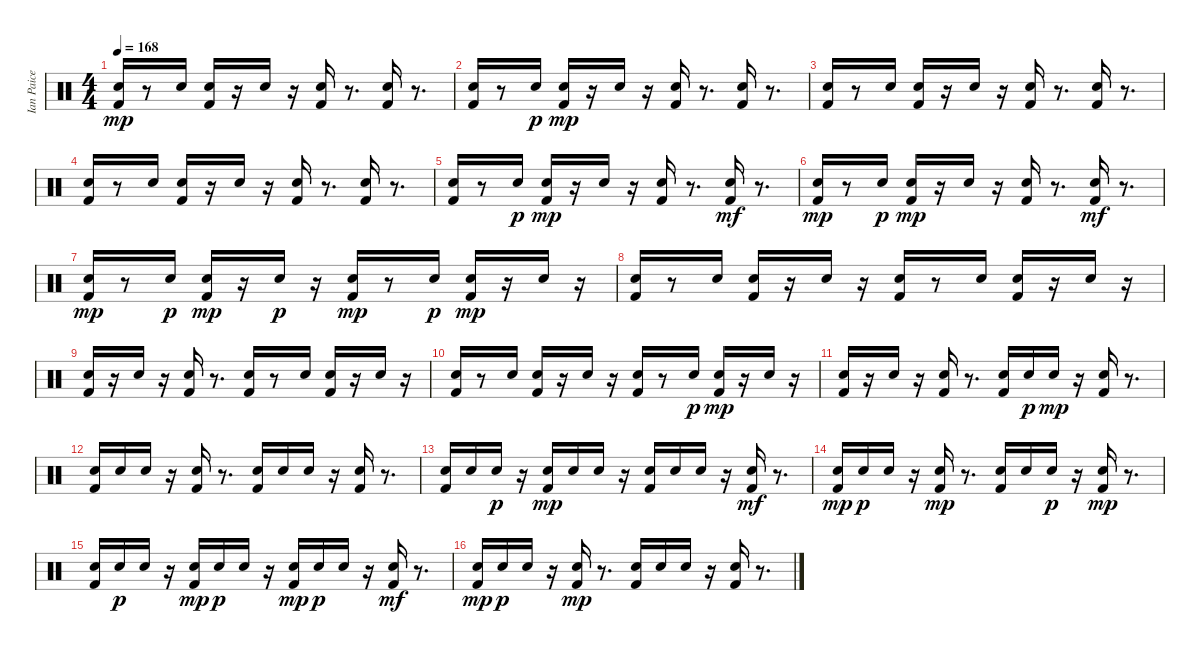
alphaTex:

\track ("Ian Paice" "Ian Paice") {instrument percussion}
\staff {score}
\articulation defaults
\ts (4 4)
\tempo 168
\clef neutral
\ks c
("Kick (hit) 2" "Electric Snare (hit)").16{dy mp} r.8 "Electric Snare (hit)".16 ("Kick (hit) 2" "Electric Snare (hit)").16 r.16 "Electric Snare (hit)".16 r.16 ("Kick (hit) 2" "Electric Snare (hit)").16 r.8{d} ("Kick (hit) 2" "Electric Snare (hit)").16 r.8{d} |
("Kick (hit) 2" "Electric Snare (hit)").16 r.8 "Electric Snare (hit)".16{dy p} ("Kick (hit) 2" "Electric Snare (hit)").16{dy mp} r.16 "Electric Snare (hit)".16 r.16 ("Kick (hit) 2" "Electric Snare (hit)").16 r.8{d} ("Kick (hit) 2" "Electric Snare (hit)").16 r.8{d} |
("Kick (hit) 2" "Electric Snare (hit)").16 r.8 "Electric Snare (hit)".16 ("Kick (hit) 2" "Electric Snare (hit)").16 r.16 "Electric Snare (hit)".16 r.16 ("Kick (hit) 2" "Electric Snare (hit)").16 r.8{d} ("Kick (hit) 2" "Electric Snare (hit)").16 r.8{d} |
("Kick (hit) 2" "Electric Snare (hit)").16 r.8 "Electric Snare (hit)".16 ("Kick (hit) 2" "Electric Snare (hit)").16 r.16 "Electric Snare (hit)".16 r.16 ("Kick (hit) 2" "Electric Snare (hit)").16 r.8{d} ("Kick (hit) 2" "Electric Snare (hit)").16 r.8{d} |
("Kick (hit) 2" "Electric Snare (hit)").16 r.8 "Electric Snare (hit)".16{dy p} ("Kick (hit) 2" "Electric Snare (hit)").16{dy mp} r.16 "Electric Snare (hit)".16 r.16 ("Kick (hit) 2" "Electric Snare (hit)").16 r.8{d} ("Kick (hit) 2" "Electric Snare (hit)").16{dy mf} r.8{d} |
("Kick (hit) 2" "Electric Snare (hit)").16{dy mp} r.8 "Electric Snare (hit)".16{dy p} ("Kick (hit) 2" "Electric Snare (hit)").16{dy mp} r.16 "Electric Snare (hit)".16 r.16 ("Kick (hit) 2" "Electric Snare (hit)").16 r.8{d} ("Kick (hit) 2" "Electric Snare (hit)").16{dy mf} r.8{d} |
("Kick (hit) 2" "Electric Snare (hit)").16{dy mp} r.8 "Electric Snare (hit)".16{dy p} ("Kick (hit) 2" "Electric Snare (hit)").16{dy mp} r.16 "Electric Snare (hit)".16{dy p} r.16 ("Kick (hit) 2" "Electric Snare (hit)").16{dy mp} r.8 "Electric Snare (hit)".16{dy p} ("Kick (hit) 2" "Electric Snare (hit)").16{dy mp} r.16 "Electric Snare (hit)".16 r.16 |
("Kick (hit) 2" "Electric Snare (hit)").16 r.8 "Electric Snare (hit)".16 ("Kick (hit) 2" "Electric Snare (hit)").16 r.16 "Electric Snare (hit)".16 r.16 ("Kick (hit) 2" "Electric Snare (hit)").16 r.8 "Electric Snare (hit)".16 ("Kick (hit) 2" "Electric Snare (hit)").16 r.16 "Electric Snare (hit)".16 r.16 |
("Kick (hit) 2" "Electric Snare (hit)").16 r.16 "Electric Snare (hit)".16 r.16 ("Kick (hit) 2" "Electric Snare (hit)").16 r.8{d} ("Kick (hit) 2" "Electric Snare (hit)").16 r.8 "Electric Snare (hit)".16 ("Kick (hit) 2" "Electric Snare (hit)").16 r.16 "Electric Snare (hit)".16 r.16 |
("Kick (hit) 2" "Electric Snare (hit)").16 r.8 "Electric Snare (hit)".16 ("Kick (hit) 2" "Electric Snare (hit)").16 r.16 "Electric Snare (hit)".16 r.16 ("Kick (hit) 2" "Electric Snare (hit)").16 r.8 "Electric Snare (hit)".16{dy p} ("Kick (hit) 2" "Electric Snare (hit)").16{dy mp} r.16 "Electric Snare (hit)".16 r.16 |
("Kick (hit) 2" "Electric Snare (hit)").16 r.16 "Electric Snare (hit)".16 r.16 ("Kick (hit) 2" "Electric Snare (hit)").16 r.8{d} ("Kick (hit) 2" "Electric Snare (hit)").16 "Electric Snare (hit)".16{dy p} "Electric Snare (hit)".16{dy mp} r.16 ("Kick (hit) 2" "Electric Snare (hit)").16 r.8{d} |
("Kick (hit) 2" "Electric Snare (hit)").16 "Electric Snare (hit)".16 "Electric Snare (hit)".16 r.16 ("Kick (hit) 2" "Electric Snare (hit)").16 r.8{d} ("Kick (hit) 2" "Electric Snare (hit)").16 "Electric Snare (hit)".16 "Electric Snare (hit)".16 r.16 ("Kick (hit) 2" "Electric Snare (hit)").16 r.8{d} |
("Kick (hit) 2" "Electric Snare (hit)").16 "Electric Snare (hit)".16 "Electric Snare (hit)".16{dy p} r.16 ("Kick (hit) 2" "Electric Snare (hit)").16{dy mp} "Electric Snare (hit)".16 "Electric Snare (hit)".16 r.16 ("Kick (hit) 2" "Electric Snare (hit)").16 "Electric Snare (hit)".16 "Electric Snare (hit)".16 r.16 ("Kick (hit) 2" "Electric Snare (hit)").16{dy mf} r.8{d} |
("Kick (hit) 2" "Electric Snare (hit)").16{dy mp} "Electric Snare (hit)".16{dy p} "Electric Snare (hit)".16 r.16 ("Kick (hit) 2" "Electric Snare (hit)").16{dy mp} r.8{d} ("Kick (hit) 2" "Electric Snare (hit)").16 "Electric Snare (hit)".16 "Electric Snare (hit)".16{dy p} r.16 ("Kick (hit) 2" "Electric Snare (hit)").16{dy mp} r.8{d} |
("Kick (hit) 2" "Electric Snare (hit)").16 "Electric Snare (hit)".16{dy p} "Electric Snare (hit)".16 r.16 ("Kick (hit) 2" "Electric Snare (hit)").16{dy mp} "Electric Snare (hit)".16{dy p} "Electric Snare (hit)".16 r.16 ("Kick (hit) 2" "Electric Snare (hit)").16{dy mp} "Electric Snare (hit)".16{dy p} "Electric Snare (hit)".16 r.16 ("Kick (hit) 2" "Electric Snare (hit)").16{dy mf} r.8{d} |
("Kick (hit) 2" "Electric Snare (hit)").16{dy mp} "Electric Snare (hit)".16{dy p} "Electric Snare (hit)".16 r.16 ("Kick (hit) 2" "Electric Snare (hit)").16{dy mp} r.8{d} ("Kick (hit) 2" "Electric Snare (hit)").16 "Electric Snare (hit)".16 "Electric Snare (hit)".16 r.16 ("Kick (hit) 2" "Electric Snare (hit)").16 r.8{d}
